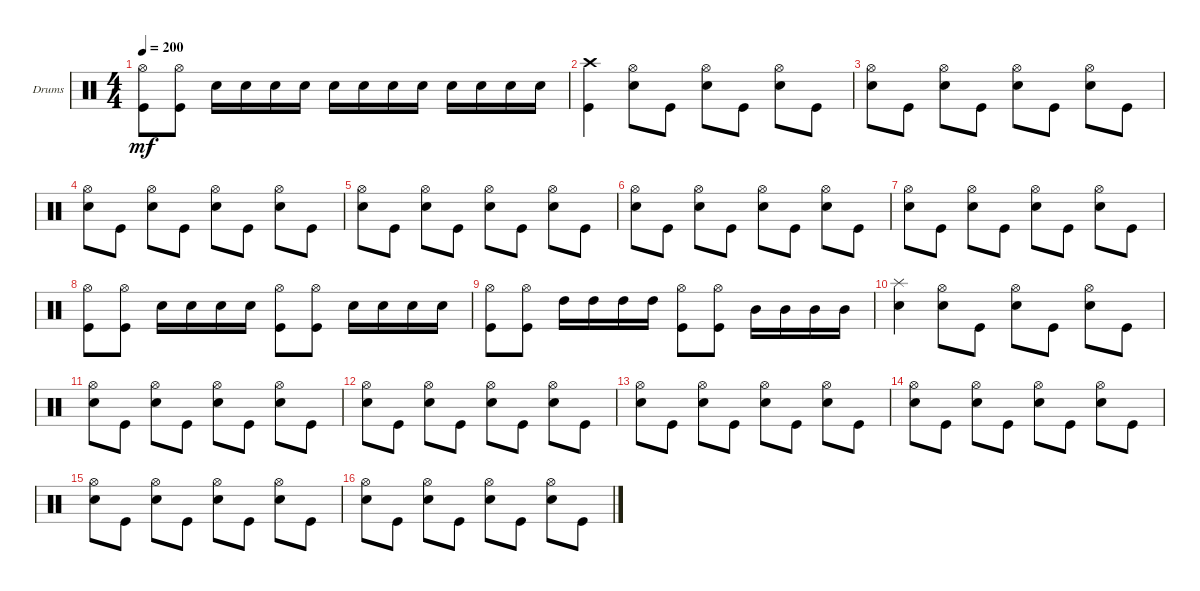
\defaultSystemsLayout 4
\bracketExtendMode groupsimilarinstruments
\firstSystemTrackNameOrientation horizontal
\otherSystemsTrackNameOrientation horizontal
\track ("Hell on da drums" "Drums") {instrument percussion}
\staff {score}
\articulation defaults
\ts (4 4)
\tempo 200
\clef neutral
\ks c
("Kick (hit)" "Hi-Hat (open)").8{dy mf} ("Kick (hit)" "Hi-Hat (open)").8 "Snare (hit) 2".16 "Snare (hit) 2".16 "Snare (hit) 2".16 "Snare (hit) 2".16 "Snare (hit) 2".16 "Snare (hit) 2".16 "Snare (hit) 2".16 "Snare (hit) 2".16 "Snare (hit) 2".16 "Snare (hit) 2".16 "Snare (hit) 2".16 "Snare (hit) 2".16 |
("Kick (hit)" "Crash high (hit)").4 ("Snare (hit) 2" "Hi-Hat (open)").8 "Kick (hit)".8 ("Snare (hit) 2" "Hi-Hat (open)").8 "Kick (hit)".8 ("Snare (hit) 2" "Hi-Hat (open)").8 "Kick (hit)".8 |
("Snare (hit) 2" "Hi-Hat (open)").8 "Kick (hit)".8 ("Snare (hit) 2" "Hi-Hat (open)").8 "Kick (hit)".8 ("Snare (hit) 2" "Hi-Hat (open)").8 "Kick (hit)".8 ("Snare (hit) 2" "Hi-Hat (open)").8 "Kick (hit)".8 |
("Snare (hit) 2" "Hi-Hat (open)").8 "Kick (hit)".8 ("Snare (hit) 2" "Hi-Hat (open)").8 "Kick (hit)".8 ("Snare (hit) 2" "Hi-Hat (open)").8 "Kick (hit)".8 ("Snare (hit) 2" "Hi-Hat (open)").8 "Kick (hit)".8 |
("Snare (hit) 2" "Hi-Hat (open)").8 "Kick (hit)".8 ("Snare (hit) 2" "Hi-Hat (open)").8 "Kick (hit)".8 ("Snare (hit) 2" "Hi-Hat (open)").8 "Kick (hit)".8 ("Snare (hit) 2" "Hi-Hat (open)").8 "Kick (hit)".8 |
("Snare (hit) 2" "Hi-Hat (open)").8 "Kick (hit)".8 ("Snare (hit) 2" "Hi-Hat (open)").8 "Kick (hit)".8 ("Snare (hit) 2" "Hi-Hat (open)").8 "Kick (hit)".8 ("Snare (hit) 2" "Hi-Hat (open)").8 "Kick (hit)".8 |
("Snare (hit) 2" "Hi-Hat (open)").8 "Kick (hit)".8 ("Snare (hit) 2" "Hi-Hat (open)").8 "Kick (hit)".8 ("Snare (hit) 2" "Hi-Hat (open)").8 "Kick (hit)".8 ("Snare (hit) 2" "Hi-Hat (open)").8 "Kick (hit)".8 |
("Kick (hit)" "Hi-Hat (open)").8 ("Kick (hit)" "Hi-Hat (open)").8 "Snare (hit) 2".16 "Snare (hit) 2".16 "Snare (hit) 2".16 "Snare (hit) 2".16 ("Kick (hit)" "Hi-Hat (open)").8 ("Kick (hit)" "Hi-Hat (open)").8 "Snare (hit) 2".16 "Snare (hit) 2".16 "Snare (hit) 2".16 "Snare (hit) 2".16 |
("Kick (hit)" "Hi-Hat (open)").8 ("Kick (hit)" "Hi-Hat (open)").8 "High Tom (hit)".16 "High Tom (hit)".16 "High Tom (hit)".16 "High Tom (hit)".16 ("Kick (hit)" "Hi-Hat (open)").8 ("Kick (hit)" "Hi-Hat (open)").8 "Mid Tom (hit)".16 "Mid Tom (hit)".16 "Mid Tom (hit)".16 "Mid Tom (hit)".16 |
("Snare (hit) 2" "Splash (hit)").4 ("Snare (hit) 2" "Hi-Hat (open)").8 "Kick (hit)".8 ("Snare (hit) 2" "Hi-Hat (open)").8 "Kick (hit)".8 ("Snare (hit) 2" "Hi-Hat (open)").8 "Kick (hit)".8 |
("Snare (hit) 2" "Hi-Hat (open)").8 "Kick (hit)".8 ("Snare (hit) 2" "Hi-Hat (open)").8 "Kick (hit)".8 ("Snare (hit) 2" "Hi-Hat (open)").8 "Kick (hit)".8 ("Snare (hit) 2" "Hi-Hat (open)").8 "Kick (hit)".8 |
("Snare (hit) 2" "Hi-Hat (open)").8 "Kick (hit)".8 ("Snare (hit) 2" "Hi-Hat (open)").8 "Kick (hit)".8 ("Snare (hit) 2" "Hi-Hat (open)").8 "Kick (hit)".8 ("Snare (hit) 2" "Hi-Hat (open)").8 "Kick (hit)".8 |
("Snare (hit) 2" "Hi-Hat (open)").8 "Kick (hit)".8 ("Snare (hit) 2" "Hi-Hat (open)").8 "Kick (hit)".8 ("Snare (hit) 2" "Hi-Hat (open)").8 "Kick (hit)".8 ("Snare (hit) 2" "Hi-Hat (open)").8 "Kick (hit)".8 |
("Snare (hit) 2" "Hi-Hat (open)").8 "Kick (hit)".8 ("Snare (hit) 2" "Hi-Hat (open)").8 "Kick (hit)".8 ("Snare (hit) 2" "Hi-Hat (open)").8 "Kick (hit)".8 ("Snare (hit) 2" "Hi-Hat (open)").8 "Kick (hit)".8 |
("Snare (hit) 2" "Hi-Hat (open)").8 "Kick (hit)".8 ("Snare (hit) 2" "Hi-Hat (open)").8 "Kick (hit)".8 ("Snare (hit) 2" "Hi-Hat (open)").8 "Kick (hit)".8 ("Snare (hit) 2" "Hi-Hat (open)").8 "Kick (hit)".8 |
("Snare (hit) 2" "Hi-Hat (open)").8 "Kick (hit)".8 ("Snare (hit) 2" "Hi-Hat (open)").8 "Kick (hit)".8 ("Snare (hit) 2" "Hi-Hat (open)").8 "Kick (hit)".8 ("Snare (hit) 2" "Hi-Hat (open)").8 "Kick (hit)".8
